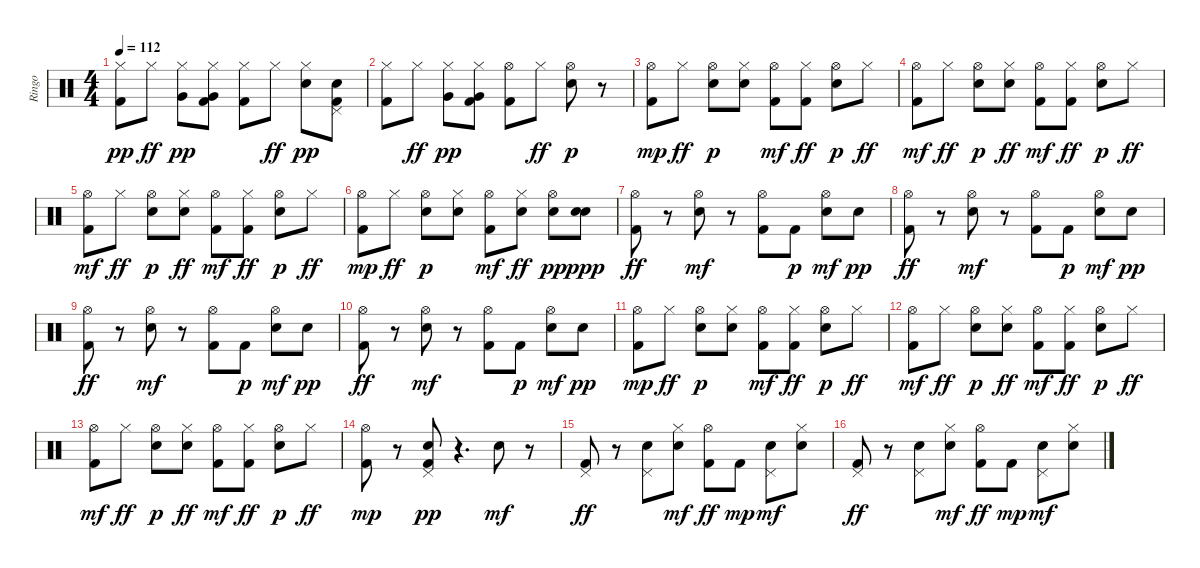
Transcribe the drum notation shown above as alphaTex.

\track ("Ringo" "Ringo") {instrument percussion}
\staff {score}
\articulation defaults
\ts (4 4)
\tempo 112
\clef neutral
\ks c
("Hi-Hat (closed)" "Kick (hit) 2").8{dy pp} "Hi-Hat (closed)".8{dy ff} ("Hi-Hat (closed)" "Very Low Tom (hit)").8{dy pp} ("Hi-Hat (closed)" "Very Low Tom (hit)" "Kick (hit) 2").8 ("Hi-Hat (closed)" "Kick (hit) 2").8 "Hi-Hat (closed)".8{dy ff} ("Hi-Hat (closed)" "Snare (hit) 2").8{dy pp} ("Pedal Hi-Hat (hit)" "Snare (hit) 2" "Kick (hit) 2").8 |
("Hi-Hat (closed)" "Kick (hit) 2").8 "Hi-Hat (closed)".8{dy ff} ("Hi-Hat (closed)" "Very Low Tom (hit)").8{dy pp} ("Hi-Hat (closed)" "Very Low Tom (hit)" "Kick (hit) 2").8 ("Hi-Hat (open)" "Kick (hit) 2").8 "Hi-Hat (closed)".8{dy ff} ("Hi-Hat (open)" "Snare (hit) 2").8{dy p} r.8 |
("Hi-Hat (open)" "Kick (hit) 2").8{dy mp} "Hi-Hat (closed)".8{dy ff} ("Hi-Hat (open)" "Snare (hit) 2").8{dy p} ("Hi-Hat (closed)" "Snare (hit) 2").8 ("Kick (hit) 2" "Hi-Hat (open)").8{dy mf} ("Kick (hit) 2" "Hi-Hat (closed)").8{dy ff} ("Hi-Hat (open)" "Snare (hit) 2").8{dy p} "Hi-Hat (closed)".8{dy ff} |
("Kick (hit) 2" "Hi-Hat (open)").8{dy mf} "Hi-Hat (closed)".8{dy ff} ("Hi-Hat (open)" "Snare (hit) 2").8{dy p} ("Snare (hit) 2" "Hi-Hat (closed)").8{dy ff} ("Kick (hit) 2" "Hi-Hat (open)").8{dy mf} ("Kick (hit) 2" "Hi-Hat (closed)").8{dy ff} ("Hi-Hat (open)" "Snare (hit) 2").8{dy p} "Hi-Hat (closed)".8{dy ff} |
("Kick (hit) 2" "Hi-Hat (open)").8{dy mf} "Hi-Hat (closed)".8{dy ff} ("Hi-Hat (open)" "Snare (hit) 2").8{dy p} ("Snare (hit) 2" "Hi-Hat (closed)").8{dy ff} ("Kick (hit) 2" "Hi-Hat (open)").8{dy mf} ("Kick (hit) 2" "Hi-Hat (closed)").8{dy ff} ("Hi-Hat (open)" "Snare (hit) 2").8{dy p} "Hi-Hat (closed)".8{dy ff} |
("Hi-Hat (open)" "Kick (hit) 2").8{dy mp} "Hi-Hat (closed)".8{dy ff} ("Hi-Hat (open)" "Snare (hit) 2").8{dy p} ("Hi-Hat (closed)" "Snare (hit) 2").8 ("Kick (hit) 2" "Hi-Hat (open)").8{dy mf} ("Snare (hit) 2" "Hi-Hat (closed)").8{dy ff} ("Hi-Hat (open)" "Snare (hit) 2").8{dy pp} ("Snare (hit) 2" "Snare (hit) 2").8{dy ppp} |
("Kick (hit) 2" "Hi-Hat (open)").8{dy ff} r.8 ("Snare (hit) 2" "Hi-Hat (open)").8{dy mf} r.8 ("Kick (hit) 2" "Hi-Hat (open)").8 "Kick (hit) 2".8{dy p} ("Snare (hit) 2" "Hi-Hat (open)").8{dy mf} "Snare (hit) 2".8{dy pp} |
("Kick (hit) 2" "Hi-Hat (open)").8{dy ff} r.8 ("Snare (hit) 2" "Hi-Hat (open)").8{dy mf} r.8 ("Kick (hit) 2" "Hi-Hat (open)").8 "Kick (hit) 2".8{dy p} ("Snare (hit) 2" "Hi-Hat (open)").8{dy mf} "Snare (hit) 2".8{dy pp} |
("Kick (hit) 2" "Hi-Hat (open)").8{dy ff} r.8 ("Snare (hit) 2" "Hi-Hat (open)").8{dy mf} r.8 ("Kick (hit) 2" "Hi-Hat (open)").8 "Kick (hit) 2".8{dy p} ("Snare (hit) 2" "Hi-Hat (open)").8{dy mf} "Snare (hit) 2".8{dy pp} |
("Kick (hit) 2" "Hi-Hat (open)").8{dy ff} r.8 ("Snare (hit) 2" "Hi-Hat (open)").8{dy mf} r.8 ("Kick (hit) 2" "Hi-Hat (open)").8 "Kick (hit) 2".8{dy p} ("Snare (hit) 2" "Hi-Hat (open)").8{dy mf} "Snare (hit) 2".8{dy pp} |
("Hi-Hat (open)" "Kick (hit) 2").8{dy mp} "Hi-Hat (closed)".8{dy ff} ("Hi-Hat (open)" "Snare (hit) 2").8{dy p} ("Hi-Hat (closed)" "Snare (hit) 2").8 ("Kick (hit) 2" "Hi-Hat (open)").8{dy mf} ("Kick (hit) 2" "Hi-Hat (closed)").8{dy ff} ("Hi-Hat (open)" "Snare (hit) 2").8{dy p} "Hi-Hat (closed)".8{dy ff} |
("Kick (hit) 2" "Hi-Hat (open)").8{dy mf} "Hi-Hat (closed)".8{dy ff} ("Hi-Hat (open)" "Snare (hit) 2").8{dy p} ("Snare (hit) 2" "Hi-Hat (closed)").8{dy ff} ("Kick (hit) 2" "Hi-Hat (open)").8{dy mf} ("Kick (hit) 2" "Hi-Hat (closed)").8{dy ff} ("Hi-Hat (open)" "Snare (hit) 2").8{dy p} "Hi-Hat (closed)".8{dy ff} |
("Kick (hit) 2" "Hi-Hat (open)").8{dy mf} "Hi-Hat (closed)".8{dy ff} ("Hi-Hat (open)" "Snare (hit) 2").8{dy p} ("Snare (hit) 2" "Hi-Hat (closed)").8{dy ff} ("Kick (hit) 2" "Hi-Hat (open)").8{dy mf} ("Kick (hit) 2" "Hi-Hat (closed)").8{dy ff} ("Hi-Hat (open)" "Snare (hit) 2").8{dy p} "Hi-Hat (closed)".8{dy ff} |
("Hi-Hat (open)" "Kick (hit) 2").8{dy mp} r.8 ("Snare (hit) 2" "Kick (hit) 2" "Pedal Hi-Hat (hit)").8{dy pp} r.4{d} "Snare (hit) 2".8{dy mf} r.8 |
("Kick (hit) 2" "Pedal Hi-Hat (hit)").8{dy ff} r.8 ("Snare (hit) 2" "Pedal Hi-Hat (hit)").8 ("Snare (hit) 2" "Hi-Hat (closed)").8{dy mf} ("Kick (hit) 2" "Hi-Hat (open)").8{dy ff} "Kick (hit) 2".8{dy mp} ("Snare (hit) 2" "Pedal Hi-Hat (hit)").8{dy mf} ("Snare (hit) 2" "Hi-Hat (closed)").8 |
("Kick (hit) 2" "Pedal Hi-Hat (hit)").8{dy ff} r.8 ("Snare (hit) 2" "Pedal Hi-Hat (hit)").8 ("Snare (hit) 2" "Hi-Hat (closed)").8{dy mf} ("Kick (hit) 2" "Hi-Hat (open)").8{dy ff} "Kick (hit) 2".8{dy mp} ("Snare (hit) 2" "Pedal Hi-Hat (hit)").8{dy mf} ("Snare (hit) 2" "Hi-Hat (closed)").8
